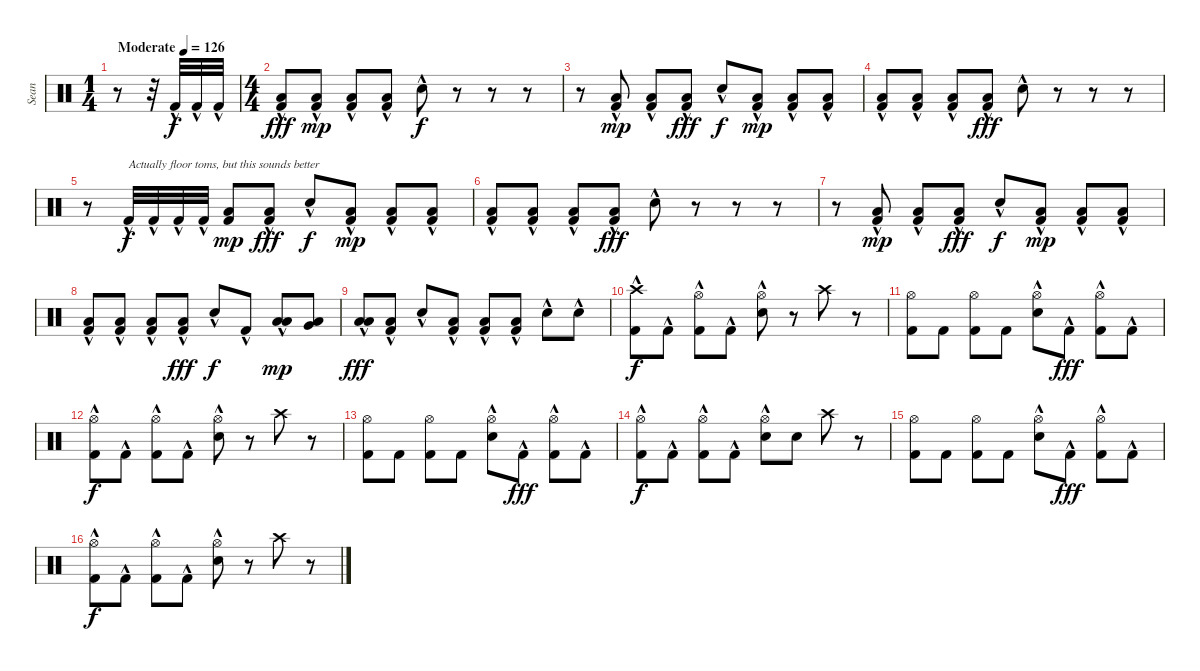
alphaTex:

\track ("Sean" "Sean") {instrument percussion}
\staff {score}
\articulation defaults
\ts (1 4)
\tempo (126 "Moderate")
\clef neutral
\ks c
r.8{dy f} r.32 "Kick (hit) 2"{hac}.32 "Kick (hit) 2"{hac}.32 "Kick (hit) 2"{hac}.32 |
\ts (4 4)
("Low Floor Tom (hit)" "Kick (hit) 2"{hac}).8{dy fff} ("Low Floor Tom (hit)" "Kick (hit) 2"{hac}).8{dy mp} ("Low Floor Tom (hit)" "Kick (hit) 2"{hac}).8 ("Low Floor Tom (hit)" "Kick (hit) 2"{hac}).8 "Snare (hit) 2"{hac}.8{dy f} r.8 r.8 r.8 |
r.8 ("Low Floor Tom (hit)" "Kick (hit) 2"{hac}).8{dy mp} ("Low Floor Tom (hit)" "Kick (hit) 2"{hac}).8 ("Low Floor Tom (hit)"{hac} "Kick (hit) 2"{hac}).8{dy fff} "Snare (hit) 2"{hac}.8{dy f} ("Low Floor Tom (hit)" "Kick (hit) 2"{hac}).8{dy mp} ("Low Floor Tom (hit)" "Kick (hit) 2"{hac}).8 ("Low Floor Tom (hit)" "Kick (hit) 2"{hac}).8 |
("Low Floor Tom (hit)" "Kick (hit) 2"{hac}).8 ("Low Floor Tom (hit)" "Kick (hit) 2"{hac}).8 ("Low Floor Tom (hit)" "Kick (hit) 2"{hac}).8 ("Low Floor Tom (hit)"{hac} "Kick (hit) 2"{hac}).8{dy fff} "Snare (hit) 2"{hac}.8 r.8 r.8 r.8 |
r.8 "Kick (hit) 2"{hac}.32{txt "Actually floor toms, but this sounds better" dy f} "Kick (hit) 2"{hac}.32 "Kick (hit) 2"{hac}.32 "Kick (hit) 2"{hac}.32 ("Low Floor Tom (hit)" "Kick (hit) 2").8{dy mp} ("Low Floor Tom (hit)" "Kick (hit) 2"{hac}).8{dy fff} "Snare (hit) 2"{hac}.8{dy f} ("Low Floor Tom (hit)" "Kick (hit) 2"{hac}).8{dy mp} ("Low Floor Tom (hit)" "Kick (hit) 2"{hac}).8 ("Low Floor Tom (hit)" "Kick (hit) 2"{hac}).8 |
("Low Floor Tom (hit)" "Kick (hit) 2"{hac}).8 ("Low Floor Tom (hit)" "Kick (hit) 2"{hac}).8 ("Low Floor Tom (hit)" "Kick (hit) 2"{hac}).8 ("Low Floor Tom (hit)"{hac} "Kick (hit) 2"{hac}).8{dy fff} "Snare (hit) 2"{hac}.8 r.8 r.8 r.8 |
r.8 ("Low Floor Tom (hit)" "Kick (hit) 2"{hac}).8{dy mp} ("Low Floor Tom (hit)" "Kick (hit) 2"{hac}).8 ("Low Floor Tom (hit)"{hac} "Kick (hit) 2"{hac}).8{dy fff} "Snare (hit) 2"{hac}.8{dy f} ("Low Floor Tom (hit)" "Kick (hit) 2"{hac}).8{dy mp} ("Low Floor Tom (hit)" "Kick (hit) 2"{hac}).8 ("Low Floor Tom (hit)" "Kick (hit) 2"{hac}).8 |
("Low Floor Tom (hit)" "Kick (hit) 2"{hac}).8 ("Low Floor Tom (hit)" "Kick (hit) 2"{hac}).8 ("Low Floor Tom (hit)" "Kick (hit) 2"{hac}).8 ("Low Floor Tom (hit)" "Kick (hit) 2"{hac}).8{dy fff} "Snare (hit) 2"{hac}.8{dy f} "Kick (hit) 2"{hac}.8 ("Low Tom (hit)" "Low Floor Tom (hit)"{hac}).8{dy mp} ("Very Low Tom (hit)" "Low Floor Tom (hit)").8 |
("Low Floor Tom (hit)"{hac} "Low Floor Tom (hit)").8{dy fff} ("Low Floor Tom (hit)" "Kick (hit) 2"{hac}).8 "Snare (hit) 2"{hac}.8 ("Low Floor Tom (hit)" "Kick (hit) 2"{hac}).8 ("Low Floor Tom (hit)"{hac} "Kick (hit) 2").8 ("Low Floor Tom (hit)" "Kick (hit) 2"{hac}).8 "Snare (hit) 2"{hac}.8 "Snare (hit) 2"{hac}.8 |
("Crash high (hit)" "Kick (hit) 2"{hac}).8{dy f} "Kick (hit) 2"{hac}.8 ("Hi-Hat (open)" "Kick (hit) 2"{hac}).8 "Kick (hit) 2"{hac}.8 ("Hi-Hat (open)" "Snare (hit) 2"{hac}).8 r.8 "Crash high (hit)".8 r.8 |
("Hi-Hat (open)" "Kick (hit) 2").8 "Kick (hit) 2".8 ("Hi-Hat (open)" "Kick (hit) 2").8 "Kick (hit) 2".8 ("Hi-Hat (open)" "Snare (hit) 2"{hac}).8 "Kick (hit) 2"{hac}.8{dy fff} ("Hi-Hat (open)" "Kick (hit) 2"{hac}).8 "Kick (hit) 2"{hac}.8 |
("Hi-Hat (open)" "Kick (hit) 2"{hac}).8{dy f} "Kick (hit) 2"{hac}.8 ("Hi-Hat (open)" "Kick (hit) 2"{hac}).8 "Kick (hit) 2"{hac}.8 ("Hi-Hat (open)" "Snare (hit) 2"{hac}).8 r.8 "Crash high (hit)".8 r.8 |
("Hi-Hat (open)" "Kick (hit) 2").8 "Kick (hit) 2".8 ("Hi-Hat (open)" "Kick (hit) 2").8 "Kick (hit) 2".8 ("Hi-Hat (open)" "Snare (hit) 2"{hac}).8 "Kick (hit) 2"{hac}.8{dy fff} ("Hi-Hat (open)" "Kick (hit) 2"{hac}).8 "Kick (hit) 2"{hac}.8 |
("Hi-Hat (open)" "Kick (hit) 2"{hac}).8{dy f} "Kick (hit) 2"{hac}.8 ("Hi-Hat (open)" "Kick (hit) 2"{hac}).8 "Kick (hit) 2"{hac}.8 ("Hi-Hat (open)" "Snare (hit) 2"{hac}).8 "Snare (hit) 2".8 "Crash high (hit)".8 r.8 |
("Hi-Hat (open)" "Kick (hit) 2").8 "Kick (hit) 2".8 ("Hi-Hat (open)" "Kick (hit) 2").8 "Kick (hit) 2".8 ("Hi-Hat (open)" "Snare (hit) 2"{hac}).8 "Kick (hit) 2"{hac}.8{dy fff} ("Hi-Hat (open)" "Kick (hit) 2"{hac}).8 "Kick (hit) 2"{hac}.8 |
("Hi-Hat (open)" "Kick (hit) 2"{hac}).8{dy f} "Kick (hit) 2"{hac}.8 ("Hi-Hat (open)" "Kick (hit) 2"{hac}).8 "Kick (hit) 2"{hac}.8 ("Hi-Hat (open)" "Snare (hit) 2"{hac}).8 r.8 "Crash high (hit)".8 r.8
